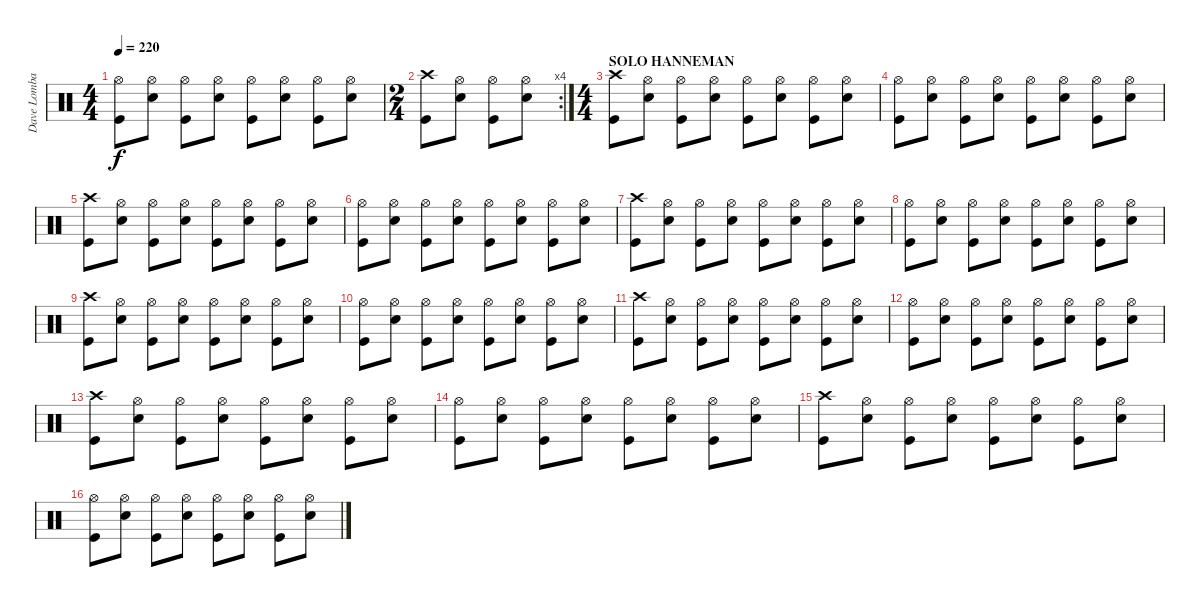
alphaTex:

\track ("Dave Lombardo" "Dave Lomba") {instrument percussion}
\staff {score}
\articulation defaults
\ts (4 4)
\tempo 220
\clef neutral
\ks c
("Hi-Hat (open)" "Kick (hit)").8{dy f} ("Hi-Hat (open)" "Snare (hit) 2").8 ("Hi-Hat (open)" "Kick (hit)").8 ("Hi-Hat (open)" "Snare (hit) 2").8 ("Hi-Hat (open)" "Kick (hit)").8 ("Hi-Hat (open)" "Snare (hit) 2").8 ("Hi-Hat (open)" "Kick (hit)").8 ("Hi-Hat (open)" "Snare (hit) 2").8 |
\rc 4
\ts (2 4)
("Crash high (hit)" "Kick (hit)").8 ("Hi-Hat (open)" "Snare (hit) 2").8 ("Hi-Hat (open)" "Kick (hit)").8 ("Hi-Hat (open)" "Snare (hit) 2").8 |
\ts (4 4)
\section ("" "SOLO HANNEMAN")
("Crash high (hit)" "Kick (hit)").8 ("Hi-Hat (open)" "Snare (hit) 2").8 ("Hi-Hat (open)" "Kick (hit)").8 ("Hi-Hat (open)" "Snare (hit) 2").8 ("Hi-Hat (open)" "Kick (hit)").8 ("Hi-Hat (open)" "Snare (hit) 2").8 ("Hi-Hat (open)" "Kick (hit)").8 ("Hi-Hat (open)" "Snare (hit) 2").8 |
("Hi-Hat (open)" "Kick (hit)").8 ("Hi-Hat (open)" "Snare (hit) 2").8 ("Hi-Hat (open)" "Kick (hit)").8 ("Hi-Hat (open)" "Snare (hit) 2").8 ("Hi-Hat (open)" "Kick (hit)").8 ("Hi-Hat (open)" "Snare (hit) 2").8 ("Hi-Hat (open)" "Kick (hit)").8 ("Hi-Hat (open)" "Snare (hit) 2").8 |
("Crash high (hit)" "Kick (hit)").8 ("Hi-Hat (open)" "Snare (hit) 2").8 ("Hi-Hat (open)" "Kick (hit)").8 ("Hi-Hat (open)" "Snare (hit) 2").8 ("Hi-Hat (open)" "Kick (hit)").8 ("Hi-Hat (open)" "Snare (hit) 2").8 ("Hi-Hat (open)" "Kick (hit)").8 ("Hi-Hat (open)" "Snare (hit) 2").8 |
("Hi-Hat (open)" "Kick (hit)").8 ("Hi-Hat (open)" "Snare (hit) 2").8 ("Hi-Hat (open)" "Kick (hit)").8 ("Hi-Hat (open)" "Snare (hit) 2").8 ("Hi-Hat (open)" "Kick (hit)").8 ("Hi-Hat (open)" "Snare (hit) 2").8 ("Hi-Hat (open)" "Kick (hit)").8 ("Hi-Hat (open)" "Snare (hit) 2").8 |
("Crash high (hit)" "Kick (hit)").8 ("Hi-Hat (open)" "Snare (hit) 2").8 ("Hi-Hat (open)" "Kick (hit)").8 ("Hi-Hat (open)" "Snare (hit) 2").8 ("Hi-Hat (open)" "Kick (hit)").8 ("Hi-Hat (open)" "Snare (hit) 2").8 ("Hi-Hat (open)" "Kick (hit)").8 ("Hi-Hat (open)" "Snare (hit) 2").8 |
("Hi-Hat (open)" "Kick (hit)").8 ("Hi-Hat (open)" "Snare (hit) 2").8 ("Hi-Hat (open)" "Kick (hit)").8 ("Hi-Hat (open)" "Snare (hit) 2").8 ("Hi-Hat (open)" "Kick (hit)").8 ("Hi-Hat (open)" "Snare (hit) 2").8 ("Hi-Hat (open)" "Kick (hit)").8 ("Hi-Hat (open)" "Snare (hit) 2").8 |
("Crash high (hit)" "Kick (hit)").8 ("Hi-Hat (open)" "Snare (hit) 2").8 ("Hi-Hat (open)" "Kick (hit)").8 ("Hi-Hat (open)" "Snare (hit) 2").8 ("Hi-Hat (open)" "Kick (hit)").8 ("Hi-Hat (open)" "Snare (hit) 2").8 ("Hi-Hat (open)" "Kick (hit)").8 ("Hi-Hat (open)" "Snare (hit) 2").8 |
("Hi-Hat (open)" "Kick (hit)").8 ("Hi-Hat (open)" "Snare (hit) 2").8 ("Hi-Hat (open)" "Kick (hit)").8 ("Hi-Hat (open)" "Snare (hit) 2").8 ("Hi-Hat (open)" "Kick (hit)").8 ("Hi-Hat (open)" "Snare (hit) 2").8 ("Hi-Hat (open)" "Kick (hit)").8 ("Hi-Hat (open)" "Snare (hit) 2").8 |
("Crash high (hit)" "Kick (hit)").8 ("Hi-Hat (open)" "Snare (hit) 2").8 ("Hi-Hat (open)" "Kick (hit)").8 ("Hi-Hat (open)" "Snare (hit) 2").8 ("Hi-Hat (open)" "Kick (hit)").8 ("Hi-Hat (open)" "Snare (hit) 2").8 ("Hi-Hat (open)" "Kick (hit)").8 ("Hi-Hat (open)" "Snare (hit) 2").8 |
("Hi-Hat (open)" "Kick (hit)").8 ("Hi-Hat (open)" "Snare (hit) 2").8 ("Hi-Hat (open)" "Kick (hit)").8 ("Hi-Hat (open)" "Snare (hit) 2").8 ("Hi-Hat (open)" "Kick (hit)").8 ("Hi-Hat (open)" "Snare (hit) 2").8 ("Hi-Hat (open)" "Kick (hit)").8 ("Hi-Hat (open)" "Snare (hit) 2").8 |
("Crash high (hit)" "Kick (hit)").8 ("Hi-Hat (open)" "Snare (hit) 2").8 ("Hi-Hat (open)" "Kick (hit)").8 ("Hi-Hat (open)" "Snare (hit) 2").8 ("Hi-Hat (open)" "Kick (hit)").8 ("Hi-Hat (open)" "Snare (hit) 2").8 ("Hi-Hat (open)" "Kick (hit)").8 ("Hi-Hat (open)" "Snare (hit) 2").8 |
("Hi-Hat (open)" "Kick (hit)").8 ("Hi-Hat (open)" "Snare (hit) 2").8 ("Hi-Hat (open)" "Kick (hit)").8 ("Hi-Hat (open)" "Snare (hit) 2").8 ("Hi-Hat (open)" "Kick (hit)").8 ("Hi-Hat (open)" "Snare (hit) 2").8 ("Hi-Hat (open)" "Kick (hit)").8 ("Hi-Hat (open)" "Snare (hit) 2").8 |
("Crash high (hit)" "Kick (hit)").8 ("Hi-Hat (open)" "Snare (hit) 2").8 ("Hi-Hat (open)" "Kick (hit)").8 ("Hi-Hat (open)" "Snare (hit) 2").8 ("Hi-Hat (open)" "Kick (hit)").8 ("Hi-Hat (open)" "Snare (hit) 2").8 ("Hi-Hat (open)" "Kick (hit)").8 ("Hi-Hat (open)" "Snare (hit) 2").8 |
("Hi-Hat (open)" "Kick (hit)").8 ("Hi-Hat (open)" "Snare (hit) 2").8 ("Hi-Hat (open)" "Kick (hit)").8 ("Hi-Hat (open)" "Snare (hit) 2").8 ("Hi-Hat (open)" "Kick (hit)").8 ("Hi-Hat (open)" "Snare (hit) 2").8 ("Hi-Hat (open)" "Kick (hit)").8 ("Hi-Hat (open)" "Snare (hit) 2").8
